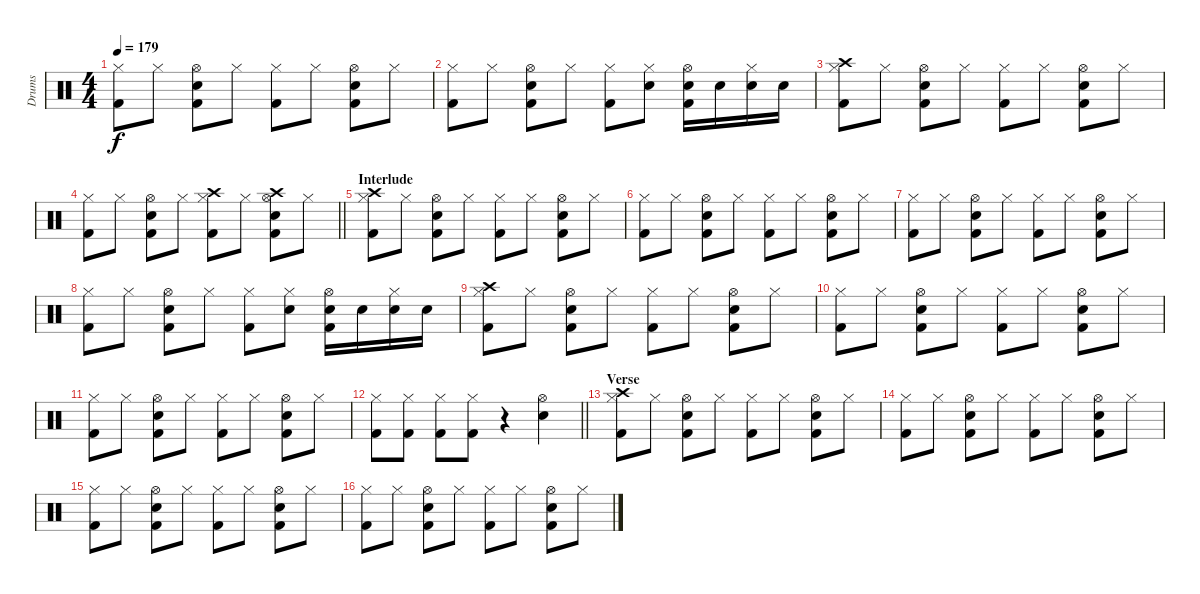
\track ("Drums" "Drums") {instrument percussion}
\staff {score}
\articulation defaults
\ts (4 4)
\tempo 179
\clef neutral
\ks c
("Hi-Hat (closed)" "Kick (hit) 2").8{dy f} "Hi-Hat (closed)".8 ("Hi-Hat (open)" "Snare (hit) 2" "Kick (hit) 2").8 "Hi-Hat (closed)".8 ("Hi-Hat (closed)" "Kick (hit) 2").8 "Hi-Hat (closed)".8 ("Hi-Hat (open)" "Snare (hit) 2" "Kick (hit) 2").8 "Hi-Hat (closed)".8 |
("Hi-Hat (closed)" "Kick (hit) 2").8 "Hi-Hat (closed)".8 ("Hi-Hat (open)" "Snare (hit) 2" "Kick (hit) 2").8 "Hi-Hat (closed)".8 ("Hi-Hat (closed)" "Kick (hit) 2").8 ("Hi-Hat (closed)" "Snare (hit) 2").8 ("Hi-Hat (open)" "Snare (hit) 2" "Kick (hit) 2").16 "Snare (hit) 2".16 ("Hi-Hat (closed)" "Snare (hit) 2").16 "Snare (hit) 2".16 |
("Hi-Hat (closed)" "Crash high (hit)" "Kick (hit) 2").8 "Hi-Hat (closed)".8 ("Hi-Hat (open)" "Snare (hit) 2" "Kick (hit) 2").8 "Hi-Hat (closed)".8 ("Hi-Hat (closed)" "Kick (hit) 2").8 "Hi-Hat (closed)".8 ("Hi-Hat (open)" "Snare (hit) 2" "Kick (hit) 2").8 "Hi-Hat (closed)".8 |
\barLineRight lightlight
("Hi-Hat (closed)" "Kick (hit) 2").8 "Hi-Hat (closed)".8 ("Hi-Hat (open)" "Snare (hit) 2" "Kick (hit) 2").8 "Hi-Hat (closed)".8 ("Hi-Hat (closed)" "Crash high (hit)" "Kick (hit) 2").8 "Hi-Hat (closed)".8 ("Hi-Hat (open)" "Snare (hit) 2" "Crash high (hit)" "Kick (hit) 2").8 "Hi-Hat (closed)".8 |
\section ("" "Interlude")
("Hi-Hat (closed)" "Crash high (hit)" "Kick (hit) 2").8 "Hi-Hat (closed)".8 ("Hi-Hat (open)" "Snare (hit) 2" "Kick (hit) 2").8 "Hi-Hat (closed)".8 ("Hi-Hat (closed)" "Kick (hit) 2").8 "Hi-Hat (closed)".8 ("Hi-Hat (open)" "Snare (hit) 2" "Kick (hit) 2").8 "Hi-Hat (closed)".8 |
("Hi-Hat (closed)" "Kick (hit) 2").8 "Hi-Hat (closed)".8 ("Hi-Hat (open)" "Snare (hit) 2" "Kick (hit) 2").8 "Hi-Hat (closed)".8 ("Hi-Hat (closed)" "Kick (hit) 2").8 "Hi-Hat (closed)".8 ("Hi-Hat (open)" "Snare (hit) 2" "Kick (hit) 2").8 "Hi-Hat (closed)".8 |
("Hi-Hat (closed)" "Kick (hit) 2").8 "Hi-Hat (closed)".8 ("Hi-Hat (open)" "Snare (hit) 2" "Kick (hit) 2").8 "Hi-Hat (closed)".8 ("Hi-Hat (closed)" "Kick (hit) 2").8 "Hi-Hat (closed)".8 ("Hi-Hat (open)" "Snare (hit) 2" "Kick (hit) 2").8 "Hi-Hat (closed)".8 |
("Hi-Hat (closed)" "Kick (hit) 2").8 "Hi-Hat (closed)".8 ("Hi-Hat (open)" "Snare (hit) 2" "Kick (hit) 2").8 "Hi-Hat (closed)".8 ("Hi-Hat (closed)" "Kick (hit) 2").8 ("Hi-Hat (closed)" "Snare (hit) 2").8 ("Hi-Hat (open)" "Snare (hit) 2" "Kick (hit) 2").16 "Snare (hit) 2".16 ("Hi-Hat (closed)" "Snare (hit) 2").16 "Snare (hit) 2".16 |
("Hi-Hat (closed)" "Crash high (hit)" "Kick (hit) 2").8 "Hi-Hat (closed)".8 ("Hi-Hat (open)" "Snare (hit) 2" "Kick (hit) 2").8 "Hi-Hat (closed)".8 ("Hi-Hat (closed)" "Kick (hit) 2").8 "Hi-Hat (closed)".8 ("Hi-Hat (open)" "Snare (hit) 2" "Kick (hit) 2").8 "Hi-Hat (closed)".8 |
("Hi-Hat (closed)" "Kick (hit) 2").8 "Hi-Hat (closed)".8 ("Hi-Hat (open)" "Snare (hit) 2" "Kick (hit) 2").8 "Hi-Hat (closed)".8 ("Hi-Hat (closed)" "Kick (hit) 2").8 "Hi-Hat (closed)".8 ("Hi-Hat (open)" "Snare (hit) 2" "Kick (hit) 2").8 "Hi-Hat (closed)".8 |
("Hi-Hat (closed)" "Kick (hit) 2").8 "Hi-Hat (closed)".8 ("Hi-Hat (open)" "Snare (hit) 2" "Kick (hit) 2").8 "Hi-Hat (closed)".8 ("Hi-Hat (closed)" "Kick (hit) 2").8 "Hi-Hat (closed)".8 ("Hi-Hat (open)" "Snare (hit) 2" "Kick (hit) 2").8 "Hi-Hat (closed)".8 |
\barLineRight lightlight
("Hi-Hat (closed)" "Kick (hit) 2").8 ("Hi-Hat (closed)" "Kick (hit) 2").8 ("Hi-Hat (closed)" "Kick (hit) 2").8 ("Hi-Hat (closed)" "Kick (hit) 2").8 r.4 ("Hi-Hat (open)" "Snare (hit) 2").4 |
\section ("" "Verse")
("Hi-Hat (closed)" "Crash high (hit)" "Kick (hit) 2").8 "Hi-Hat (closed)".8 ("Hi-Hat (open)" "Snare (hit) 2" "Kick (hit) 2").8 "Hi-Hat (closed)".8 ("Hi-Hat (closed)" "Kick (hit) 2").8 "Hi-Hat (closed)".8 ("Hi-Hat (open)" "Snare (hit) 2" "Kick (hit) 2").8 "Hi-Hat (closed)".8 |
("Hi-Hat (closed)" "Kick (hit) 2").8 "Hi-Hat (closed)".8 ("Hi-Hat (open)" "Snare (hit) 2" "Kick (hit) 2").8 "Hi-Hat (closed)".8 ("Hi-Hat (closed)" "Kick (hit) 2").8 "Hi-Hat (closed)".8 ("Hi-Hat (open)" "Snare (hit) 2" "Kick (hit) 2").8 "Hi-Hat (closed)".8 |
("Hi-Hat (closed)" "Kick (hit) 2").8 "Hi-Hat (closed)".8 ("Hi-Hat (open)" "Snare (hit) 2" "Kick (hit) 2").8 "Hi-Hat (closed)".8 ("Hi-Hat (closed)" "Kick (hit) 2").8 "Hi-Hat (closed)".8 ("Hi-Hat (open)" "Snare (hit) 2" "Kick (hit) 2").8 "Hi-Hat (closed)".8 |
("Hi-Hat (closed)" "Kick (hit) 2").8 "Hi-Hat (closed)".8 ("Hi-Hat (open)" "Snare (hit) 2" "Kick (hit) 2").8 "Hi-Hat (closed)".8 ("Hi-Hat (closed)" "Kick (hit) 2").8 "Hi-Hat (closed)".8 ("Hi-Hat (open)" "Snare (hit) 2" "Kick (hit) 2").8 "Hi-Hat (closed)".8
